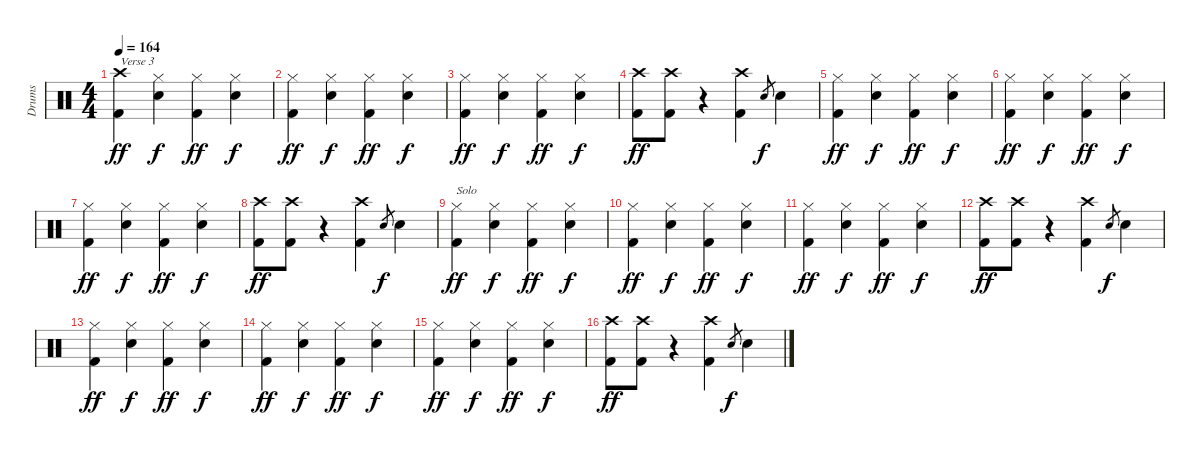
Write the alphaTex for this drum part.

\track ("Drums" "Drums") {instrument percussion}
\staff {score}
\articulation defaults
\ts (4 4)
\tempo 164
\clef neutral
\ks c
("Crash high (hit)" "Kick (hit) 2").4{txt "Verse 3" dy ff} ("Hi-Hat (closed)" "Snare (hit) 2").4{dy f} ("Hi-Hat (closed)" "Kick (hit) 2").4{dy ff} ("Hi-Hat (closed)" "Snare (hit) 2").4{dy f} |
("Hi-Hat (closed)" "Kick (hit) 2").4{dy ff} ("Hi-Hat (closed)" "Snare (hit) 2").4{dy f} ("Hi-Hat (closed)" "Kick (hit) 2").4{dy ff} ("Hi-Hat (closed)" "Snare (hit) 2").4{dy f} |
("Hi-Hat (closed)" "Kick (hit) 2").4{dy ff} ("Hi-Hat (closed)" "Snare (hit) 2").4{dy f} ("Hi-Hat (closed)" "Kick (hit) 2").4{dy ff} ("Hi-Hat (closed)" "Snare (hit) 2").4{dy f} |
("Crash high (hit)" "Kick (hit) 2").8{dy ff} ("Crash high (hit)" "Kick (hit) 2").8 r.4 ("Crash high (hit)" "Kick (hit) 2").4 "Snare (hit) 2".8{gr dy f} "Snare (hit) 2".4 |
("Hi-Hat (closed)" "Kick (hit) 2").4{dy ff} ("Hi-Hat (closed)" "Snare (hit) 2").4{dy f} ("Hi-Hat (closed)" "Kick (hit) 2").4{dy ff} ("Hi-Hat (closed)" "Snare (hit) 2").4{dy f} |
("Hi-Hat (closed)" "Kick (hit) 2").4{dy ff} ("Hi-Hat (closed)" "Snare (hit) 2").4{dy f} ("Hi-Hat (closed)" "Kick (hit) 2").4{dy ff} ("Hi-Hat (closed)" "Snare (hit) 2").4{dy f} |
("Hi-Hat (closed)" "Kick (hit) 2").4{dy ff} ("Hi-Hat (closed)" "Snare (hit) 2").4{dy f} ("Hi-Hat (closed)" "Kick (hit) 2").4{dy ff} ("Hi-Hat (closed)" "Snare (hit) 2").4{dy f} |
("Crash high (hit)" "Kick (hit) 2").8{dy ff} ("Crash high (hit)" "Kick (hit) 2").8 r.4 ("Crash high (hit)" "Kick (hit) 2").4 "Snare (hit) 2".8{gr dy f} "Snare (hit) 2".4 |
("Hi-Hat (closed)" "Kick (hit) 2").4{txt "Solo" dy ff} ("Hi-Hat (closed)" "Snare (hit) 2").4{dy f} ("Hi-Hat (closed)" "Kick (hit) 2").4{dy ff} ("Hi-Hat (closed)" "Snare (hit) 2").4{dy f} |
("Hi-Hat (closed)" "Kick (hit) 2").4{dy ff} ("Hi-Hat (closed)" "Snare (hit) 2").4{dy f} ("Hi-Hat (closed)" "Kick (hit) 2").4{dy ff} ("Hi-Hat (closed)" "Snare (hit) 2").4{dy f} |
("Hi-Hat (closed)" "Kick (hit) 2").4{dy ff} ("Hi-Hat (closed)" "Snare (hit) 2").4{dy f} ("Hi-Hat (closed)" "Kick (hit) 2").4{dy ff} ("Hi-Hat (closed)" "Snare (hit) 2").4{dy f} |
("Crash high (hit)" "Kick (hit) 2").8{dy ff} ("Crash high (hit)" "Kick (hit) 2").8 r.4 ("Crash high (hit)" "Kick (hit) 2").4 "Snare (hit) 2".8{gr dy f} "Snare (hit) 2".4 |
("Hi-Hat (closed)" "Kick (hit) 2").4{dy ff} ("Hi-Hat (closed)" "Snare (hit) 2").4{dy f} ("Hi-Hat (closed)" "Kick (hit) 2").4{dy ff} ("Hi-Hat (closed)" "Snare (hit) 2").4{dy f} |
("Hi-Hat (closed)" "Kick (hit) 2").4{dy ff} ("Hi-Hat (closed)" "Snare (hit) 2").4{dy f} ("Hi-Hat (closed)" "Kick (hit) 2").4{dy ff} ("Hi-Hat (closed)" "Snare (hit) 2").4{dy f} |
("Hi-Hat (closed)" "Kick (hit) 2").4{dy ff} ("Hi-Hat (closed)" "Snare (hit) 2").4{dy f} ("Hi-Hat (closed)" "Kick (hit) 2").4{dy ff} ("Hi-Hat (closed)" "Snare (hit) 2").4{dy f} |
("Crash high (hit)" "Kick (hit) 2").8{dy ff} ("Crash high (hit)" "Kick (hit) 2").8 r.4 ("Crash high (hit)" "Kick (hit) 2").4 "Snare (hit) 2".8{gr dy f} "Snare (hit) 2".4
